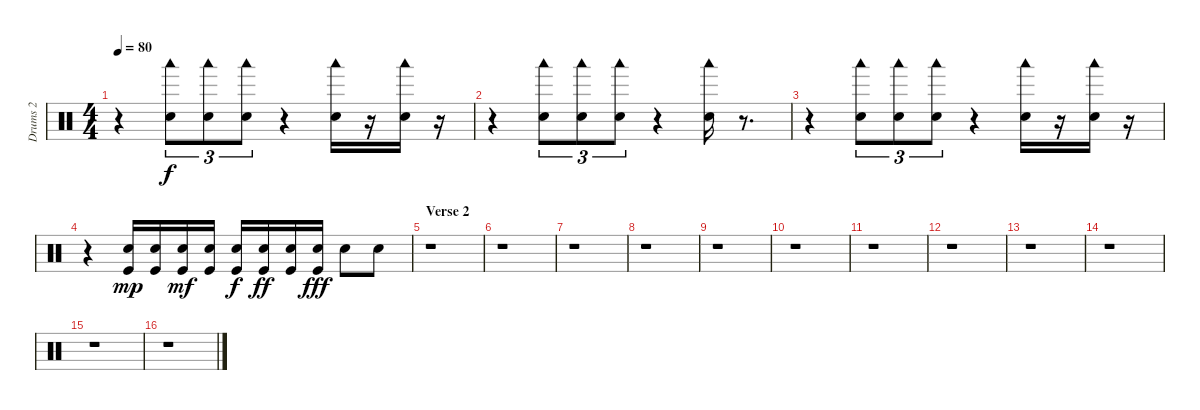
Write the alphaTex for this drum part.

\track ("Drums 2" "Drums 2") {instrument percussion}
\staff {score}
\articulation defaults
\ts (4 4)
\tempo 80
\clef neutral
\ks c
r.4{dy f} ("Woodblock low (hit)" "Electric Snare (hit)").8{tu (3 2)} ("Woodblock low (hit)" "Electric Snare (hit)").8{tu (3 2)} ("Woodblock low (hit)" "Electric Snare (hit)").8{tu (3 2)} r.4 ("Woodblock low (hit)" "Electric Snare (hit)").16 r.16 ("Woodblock low (hit)" "Electric Snare (hit)").16 r.16 |
r.4 ("Woodblock low (hit)" "Electric Snare (hit)").8{tu (3 2)} ("Woodblock low (hit)" "Electric Snare (hit)").8{tu (3 2)} ("Woodblock low (hit)" "Electric Snare (hit)").8{tu (3 2)} r.4 ("Woodblock low (hit)" "Electric Snare (hit)").16 r.8{d} |
r.4 ("Woodblock low (hit)" "Electric Snare (hit)").8{tu (3 2)} ("Woodblock low (hit)" "Electric Snare (hit)").8{tu (3 2)} ("Woodblock low (hit)" "Electric Snare (hit)").8{tu (3 2)} r.4 ("Woodblock low (hit)" "Electric Snare (hit)").16 r.16 ("Woodblock low (hit)" "Electric Snare (hit)").16 r.16 |
r.4 ("Electric Snare (hit)" "Kick (hit)").16{dy mp} ("Electric Snare (hit)" "Kick (hit)").16 ("Electric Snare (hit)" "Kick (hit)").16{dy mf} ("Electric Snare (hit)" "Kick (hit)").16 ("Electric Snare (hit)" "Kick (hit)").16{dy f} ("Electric Snare (hit)" "Kick (hit)").16{dy ff} ("Electric Snare (hit)" "Kick (hit)").16 ("Electric Snare (hit)" "Kick (hit)").16{dy fff} "Electric Snare (hit)".8 "Electric Snare (hit)".8 |
\section ("" "Verse 2")
r.1 |
r.1 |
r.1 |
r.1 |
r.1 |
r.1 |
r.1 |
r.1 |
r.1 |
r.1 |
r.1 |
r.1
